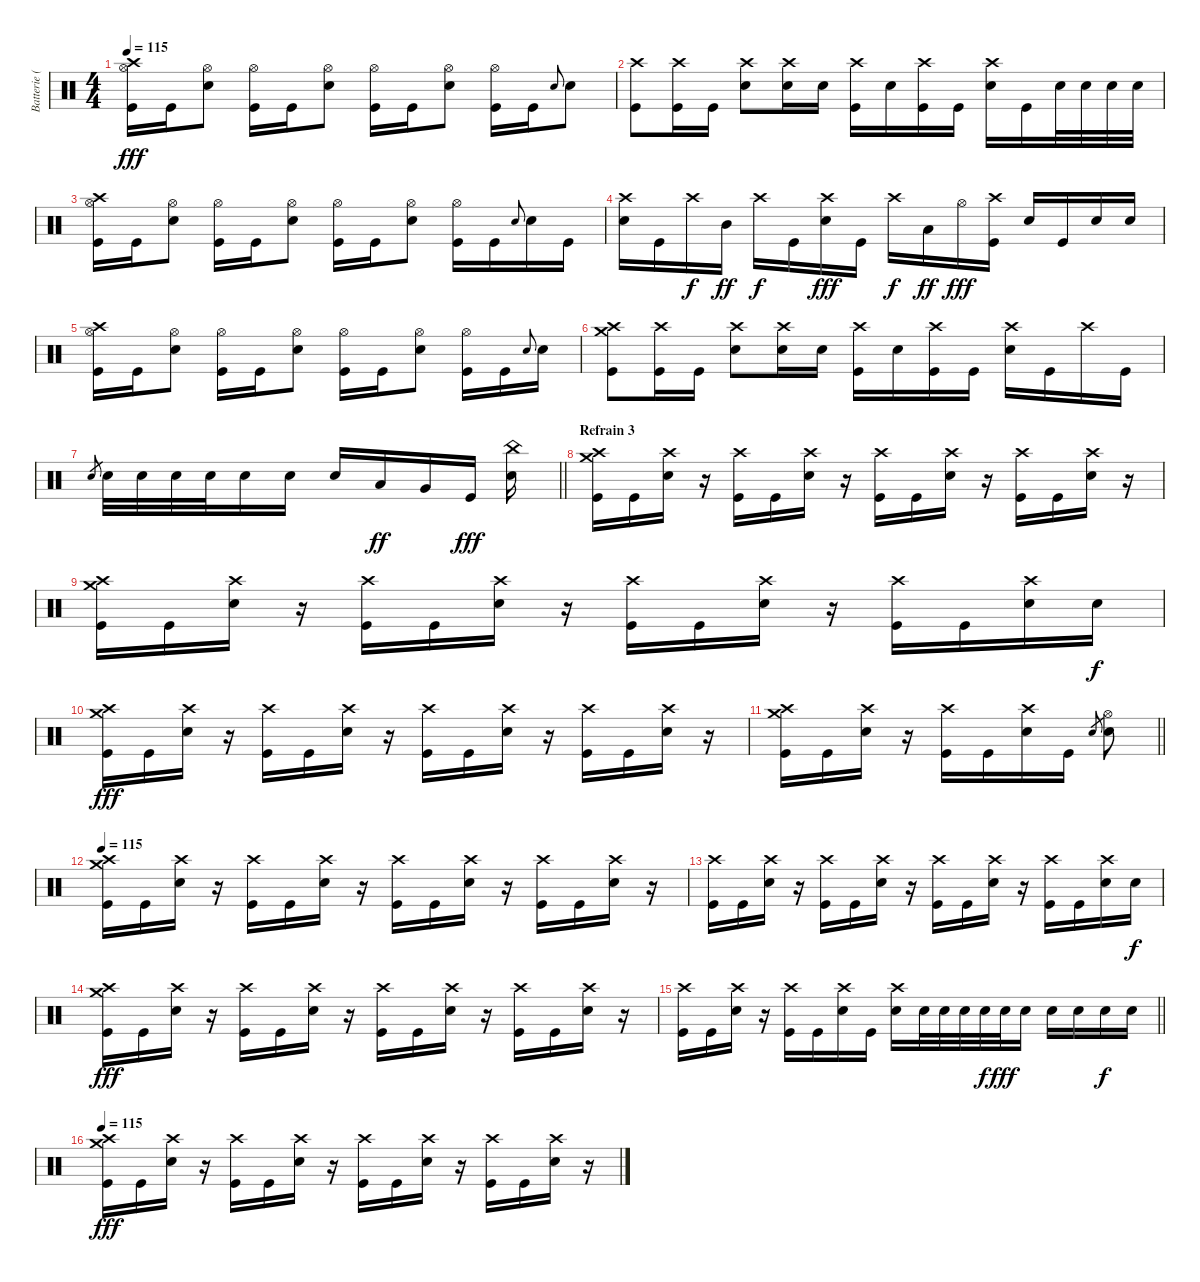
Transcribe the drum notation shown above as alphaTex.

\track ("Batterie (Steve)" "Batterie (") {instrument percussion}
\staff {score}
\articulation defaults
\ts (4 4)
\tempo 115
\clef neutral
\ks c
("Hi-Hat (open)" "Crash high (hit)" "Kick (hit)").16{dy fff} "Kick (hit)".16 ("Hi-Hat (open)" "Electric Snare (hit)").8 ("Hi-Hat (open)" "Kick (hit)").16 "Kick (hit)".16 ("Hi-Hat (open)" "Electric Snare (hit)").8 ("Hi-Hat (open)" "Kick (hit)").16 "Kick (hit)".16 ("Hi-Hat (open)" "Electric Snare (hit)").8 ("Hi-Hat (open)" "Kick (hit)").16 "Kick (hit)".16 "Electric Snare (hit)".8{gr onbeat} "Electric Snare (hit)".8 |
("Crash high (hit)" "Kick (hit)").8 ("Crash high (hit)" "Kick (hit)").16 "Kick (hit)".16 ("Crash high (hit)" "Electric Snare (hit)").8 ("Crash high (hit)" "Electric Snare (hit)").16 "Electric Snare (hit)".16 ("Crash high (hit)" "Kick (hit)").16 "Electric Snare (hit)".16 ("Crash high (hit)" "Kick (hit)").16 "Kick (hit)".16 ("Crash high (hit)" "Electric Snare (hit)").16 "Kick (hit)".16 "Electric Snare (hit)".32 "Electric Snare (hit)".32 "Electric Snare (hit)".32 "Electric Snare (hit)".32 |
("Hi-Hat (open)" "Crash high (hit)" "Kick (hit)").16 "Kick (hit)".16 ("Hi-Hat (open)" "Electric Snare (hit)").8 ("Hi-Hat (open)" "Kick (hit)").16 "Kick (hit)".16 ("Hi-Hat (open)" "Electric Snare (hit)").8 ("Hi-Hat (open)" "Kick (hit)").16 "Kick (hit)".16 ("Hi-Hat (open)" "Electric Snare (hit)").8 ("Hi-Hat (open)" "Kick (hit)").16 "Kick (hit)".16 "Electric Snare (hit)".8{gr onbeat} "Electric Snare (hit)".16 "Kick (hit)".16 |
("Crash high (hit)" "Electric Snare (hit)").16 "Kick (hit)".16 "Crash high (hit)".16{dy f} "Mid Tom (hit)".16{dy ff} "Crash high (hit)".16{dy f} "Kick (hit)".16 ("Crash high (hit)" "Electric Snare (hit)").16{dy fff} "Kick (hit)".16 "Crash high (hit)".16{dy f} "Low Tom (hit)".16{dy ff} "Hi-Hat (open)".16{dy fff} ("Crash high (hit)" "Kick (hit)").16 "Electric Snare (hit)".16 "Kick (hit)".16 "Electric Snare (hit)".16 "Electric Snare (hit)".16 |
("Hi-Hat (open)" "Crash high (hit)" "Kick (hit)").16 "Kick (hit)".16 ("Hi-Hat (open)" "Electric Snare (hit)").8 ("Hi-Hat (open)" "Kick (hit)").16 "Kick (hit)".16 ("Hi-Hat (open)" "Electric Snare (hit)").8 ("Hi-Hat (open)" "Kick (hit)").16 "Kick (hit)".16 ("Hi-Hat (open)" "Electric Snare (hit)").8 ("Hi-Hat (open)" "Kick (hit)").16 "Kick (hit)".16 "Electric Snare (hit)".8{gr onbeat} "Electric Snare (hit)".16 |
("Crash medium (hit)" "Crash high (hit)" "Kick (hit)").8 ("Crash high (hit)" "Kick (hit)").16 "Kick (hit)".16 ("Crash high (hit)" "Electric Snare (hit)").8 ("Crash high (hit)" "Electric Snare (hit)").16 "Electric Snare (hit)".16 ("Crash high (hit)" "Kick (hit)").16 "Electric Snare (hit)".16 ("Crash high (hit)" "Kick (hit)").16 "Kick (hit)".16 ("Crash high (hit)" "Electric Snare (hit)").16 "Kick (hit)".16 "Crash high (hit)".16 "Kick (hit)".16 |
\barLineRight lightlight "Electric Snare (hit)".8{gr} "Electric Snare (hit)".32 "Electric Snare (hit)".32 "Electric Snare (hit)".32 "Electric Snare (hit)".32 "Electric Snare (hit)".16 "Electric Snare (hit)".16 "Electric Snare (hit)".16 "Low Tom (hit)".16{dy ff} "Very Low Tom (hit)".16 "Kick (hit)".16{dy fff}
("China (hit)" "Electric Snare (hit)").16 |
\section ("" "Refrain 3")
("Crash medium (hit)" "Crash high (hit)" "Kick (hit)").16 "Kick (hit)".16 ("Crash high (hit)" "Electric Snare (hit)").16 r.16 ("Crash high (hit)" "Kick (hit)").16 "Kick (hit)".16 ("Crash high (hit)" "Electric Snare (hit)").16 r.16 ("Crash high (hit)" "Kick (hit)").16 "Kick (hit)".16 ("Crash high (hit)" "Electric Snare (hit)").16 r.16 ("Crash high (hit)" "Kick (hit)").16 "Kick (hit)".16 ("Crash high (hit)" "Electric Snare (hit)").16 r.16 |
("Crash medium (hit)" "Crash high (hit)" "Kick (hit)").16 "Kick (hit)".16 ("Crash high (hit)" "Electric Snare (hit)").16 r.16 ("Crash high (hit)" "Kick (hit)").16 "Kick (hit)".16 ("Crash high (hit)" "Electric Snare (hit)").16 r.16 ("Crash high (hit)" "Kick (hit)").16 "Kick (hit)".16 ("Crash high (hit)" "Electric Snare (hit)").16 r.16 ("Crash high (hit)" "Kick (hit)").16 "Kick (hit)".16 ("Crash high (hit)" "Electric Snare (hit)").16 "Electric Snare (hit)".16{dy f} |
("Crash medium (hit)" "Crash high (hit)" "Kick (hit)").16{dy fff} "Kick (hit)".16 ("Crash high (hit)" "Electric Snare (hit)").16 r.16 ("Crash high (hit)" "Kick (hit)").16 "Kick (hit)".16 ("Crash high (hit)" "Electric Snare (hit)").16 r.16 ("Crash high (hit)" "Kick (hit)").16 "Kick (hit)".16 ("Crash high (hit)" "Electric Snare (hit)").16 r.16 ("Crash high (hit)" "Kick (hit)").16 "Kick (hit)".16 ("Crash high (hit)" "Electric Snare (hit)").16 r.16 |
\barLineRight lightlight
("Crash medium (hit)" "Crash high (hit)" "Kick (hit)").16 "Kick (hit)".16 ("Crash high (hit)" "Electric Snare (hit)").16 r.16 ("Crash high (hit)" "Kick (hit)").16 "Kick (hit)".16 ("Crash high (hit)" "Electric Snare (hit)").16 "Kick (hit)".16 "Electric Snare (hit)".8{gr} ("Hi-Hat (open)" "Electric Snare (hit)").8 |
\tempo 115
("Crash medium (hit)" "Crash high (hit)" "Kick (hit)").16 "Kick (hit)".16 ("Crash high (hit)" "Electric Snare (hit)").16 r.16 ("Crash high (hit)" "Kick (hit)").16 "Kick (hit)".16 ("Crash high (hit)" "Electric Snare (hit)").16 r.16 ("Crash high (hit)" "Kick (hit)").16 "Kick (hit)".16 ("Crash high (hit)" "Electric Snare (hit)").16 r.16 ("Crash high (hit)" "Kick (hit)").16 "Kick (hit)".16 ("Crash high (hit)" "Electric Snare (hit)").16 r.16 |
("Crash high (hit)" "Kick (hit)").16 "Kick (hit)".16 ("Crash high (hit)" "Electric Snare (hit)").16 r.16 ("Crash high (hit)" "Kick (hit)").16 "Kick (hit)".16 ("Crash high (hit)" "Electric Snare (hit)").16 r.16 ("Crash high (hit)" "Kick (hit)").16 "Kick (hit)".16 ("Crash high (hit)" "Electric Snare (hit)").16 r.16 ("Crash high (hit)" "Kick (hit)").16 "Kick (hit)".16 ("Crash high (hit)" "Electric Snare (hit)").16 "Electric Snare (hit)".16{dy f} |
("Crash medium (hit)" "Crash high (hit)" "Kick (hit)").16{dy fff} "Kick (hit)".16 ("Crash high (hit)" "Electric Snare (hit)").16 r.16 ("Crash high (hit)" "Kick (hit)").16 "Kick (hit)".16 ("Crash high (hit)" "Electric Snare (hit)").16 r.16 ("Crash high (hit)" "Kick (hit)").16 "Kick (hit)".16 ("Crash high (hit)" "Electric Snare (hit)").16 r.16 ("Crash high (hit)" "Kick (hit)").16 "Kick (hit)".16 ("Crash high (hit)" "Electric Snare (hit)").16 r.16 |
\barLineRight lightlight
("Crash high (hit)" "Kick (hit)").16 "Kick (hit)".16 ("Crash high (hit)" "Electric Snare (hit)").16 r.16 ("Crash high (hit)" "Kick (hit)").16 "Kick (hit)".16 ("Crash high (hit)" "Electric Snare (hit)").16 "Kick (hit)".16 ("Crash high (hit)" "Electric Snare (hit)").16 "Electric Snare (hit)".32 "Electric Snare (hit)".32 "Electric Snare (hit)".32 "Electric Snare (hit)".32{dy f} "Electric Snare (hit)".32{dy fff} "Electric Snare (hit)".16 "Electric Snare (hit)".16 "Electric Snare (hit)".16 "Electric Snare (hit)".16{dy f} "Electric Snare (hit)".16 |
\tempo 115
("Crash medium (hit)" "Crash high (hit)" "Kick (hit)").16{dy fff} "Kick (hit)".16 ("Crash high (hit)" "Electric Snare (hit)").16 r.16 ("Crash high (hit)" "Kick (hit)").16 "Kick (hit)".16 ("Crash high (hit)" "Electric Snare (hit)").16 r.16 ("Crash high (hit)" "Kick (hit)").16 "Kick (hit)".16 ("Crash high (hit)" "Electric Snare (hit)").16 r.16 ("Crash high (hit)" "Kick (hit)").16 "Kick (hit)".16 ("Crash high (hit)" "Electric Snare (hit)").16 r.16
